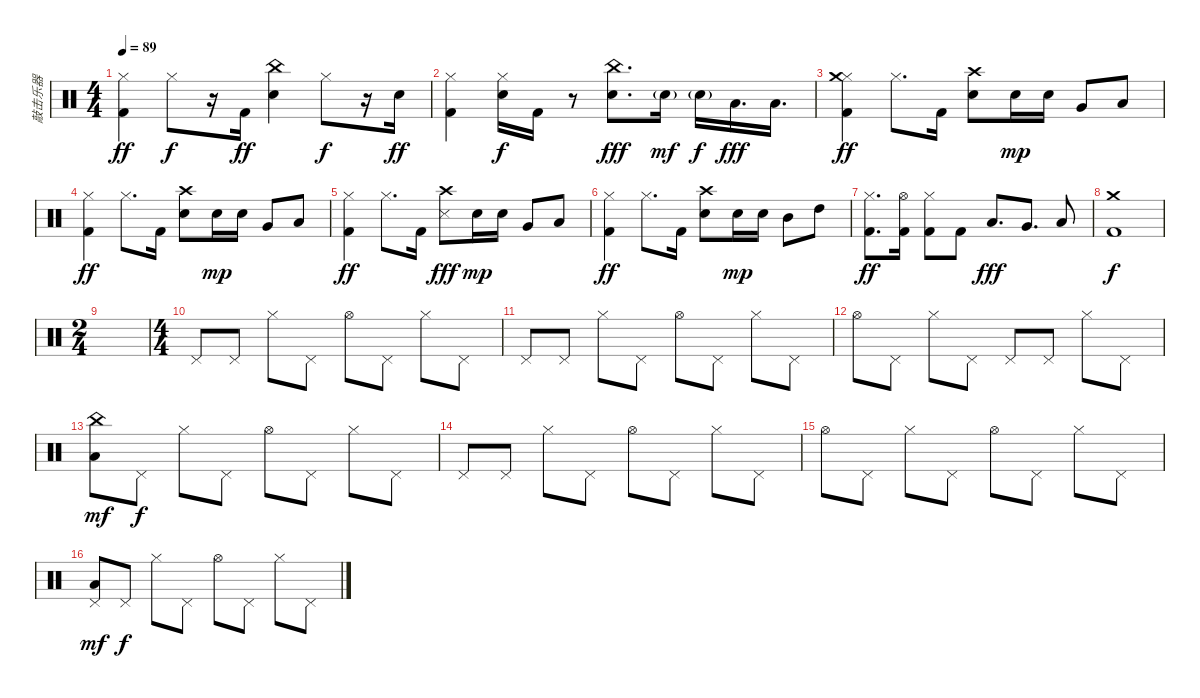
\track ("敲击乐器" "敲击乐器") {instrument percussion}
\staff {score}
\articulation defaults
\ts (4 4)
\tempo 89
\clef neutral
\ks c
("Hi-Hat (closed)" "Kick (hit) 2").4{dy ff} "Hi-Hat (closed)".8{dy f} r.16 "Kick (hit) 2".16{dy ff} ("China (hit)" "Electric Snare (hit)").4 "Hi-Hat (closed)".8{dy f} r.16 "Electric Snare (hit)".16{dy ff} |
("Hi-Hat (closed)" "Kick (hit) 2").4 ("Hi-Hat (closed)" "Electric Snare (hit)").16{dy f} "Kick (hit) 2".16 r.8 ("China (hit)" "Electric Snare (hit)").8{d dy fff} "Electric Snare (hit)"{g}.16{dy mf} "Electric Snare (hit)"{g}.16{dy f} "Low Tom (hit)".16{d dy fff} "Low Floor Tom (hit)".16{d} |
("Hi-Hat (closed)" "Crash medium (hit)" "Kick (hit) 2").4{dy ff} "Hi-Hat (closed)".8{d} "Kick (hit) 2".16 ("Electric Snare (hit)" "Crash high (hit)").8 "Electric Snare (hit)".16{dy mp} "Electric Snare (hit)".16 "Very Low Tom (hit)".8 "Low Floor Tom (hit)".8 |
("Hi-Hat (closed)" "Kick (hit) 2").4{dy ff} "Hi-Hat (closed)".8{d} "Kick (hit) 2".16 ("Electric Snare (hit)" "Crash high (hit)").8 "Electric Snare (hit)".16{dy mp} "Electric Snare (hit)".16 "Very Low Tom (hit)".8 "Low Floor Tom (hit)".8 |
("Hi-Hat (closed)" "Kick (hit) 2").4{dy ff} "Hi-Hat (closed)".8{d} "Kick (hit) 2".16 ("Crash high (hit)" "Snare (side stick) 3").8{dy fff} "Electric Snare (hit)".16{dy mp} "Electric Snare (hit)".16 "Very Low Tom (hit)".8 "Low Floor Tom (hit)".8 |
("Hi-Hat (closed)" "Kick (hit) 2").4{dy ff} "Hi-Hat (closed)".8{d} "Kick (hit) 2".16 ("Electric Snare (hit)" "Crash high (hit)").8 "Electric Snare (hit)".16{dy mp} "Electric Snare (hit)".16 "Mid Tom (hit)".8 "High Tom (hit)".8 |
("Hi-Hat (closed)" "Kick (hit) 2").8{d dy ff} ("Hi-Hat (open)" "Kick (hit) 2").16 ("Hi-Hat (closed)" "Kick (hit) 2").8 "Kick (hit) 2".8 "Low Tom (hit)".8{d dy fff} "Very Low Tom (hit)".8{d} "Low Floor Tom (hit)".8 |
("Crash medium (hit)" "Kick (hit) 2").1{dy f} |
\ts (2 4)
|
\ts (4 4)
"Pedal Hi-Hat (hit)".8 "Pedal Hi-Hat (hit)".8 "Hi-Hat (closed)".8 "Pedal Hi-Hat (hit)".8 "Hi-Hat (open)".8 "Pedal Hi-Hat (hit)".8 "Hi-Hat (closed)".8 "Pedal Hi-Hat (hit)".8 |
"Pedal Hi-Hat (hit)".8 "Pedal Hi-Hat (hit)".8 "Hi-Hat (closed)".8 "Pedal Hi-Hat (hit)".8 "Hi-Hat (open)".8 "Pedal Hi-Hat (hit)".8 "Hi-Hat (closed)".8 "Pedal Hi-Hat (hit)".8 |
"Hi-Hat (open)".8 "Pedal Hi-Hat (hit)".8 "Hi-Hat (closed)".8 "Pedal Hi-Hat (hit)".8 "Pedal Hi-Hat (hit)".8 "Pedal Hi-Hat (hit)".8 "Hi-Hat (closed)".8 "Pedal Hi-Hat (hit)".8 |
("China (hit)" "Low Floor Tom (hit)").8{dy mf} "Pedal Hi-Hat (hit)".8{dy f} "Hi-Hat (closed)".8 "Pedal Hi-Hat (hit)".8 "Hi-Hat (open)".8 "Pedal Hi-Hat (hit)".8 "Hi-Hat (closed)".8 "Pedal Hi-Hat (hit)".8 |
"Pedal Hi-Hat (hit)".8 "Pedal Hi-Hat (hit)".8 "Hi-Hat (closed)".8 "Pedal Hi-Hat (hit)".8 "Hi-Hat (open)".8 "Pedal Hi-Hat (hit)".8 "Hi-Hat (closed)".8 "Pedal Hi-Hat (hit)".8 |
"Hi-Hat (open)".8 "Pedal Hi-Hat (hit)".8 "Hi-Hat (closed)".8 "Pedal Hi-Hat (hit)".8 "Hi-Hat (open)".8 "Pedal Hi-Hat (hit)".8 "Hi-Hat (closed)".8 "Pedal Hi-Hat (hit)".8 |
("Pedal Hi-Hat (hit)" "Low Floor Tom (hit)").8{dy mf} "Pedal Hi-Hat (hit)".8{dy f} "Hi-Hat (closed)".8 "Pedal Hi-Hat (hit)".8 "Hi-Hat (open)".8 "Pedal Hi-Hat (hit)".8 "Hi-Hat (closed)".8 "Pedal Hi-Hat (hit)".8
